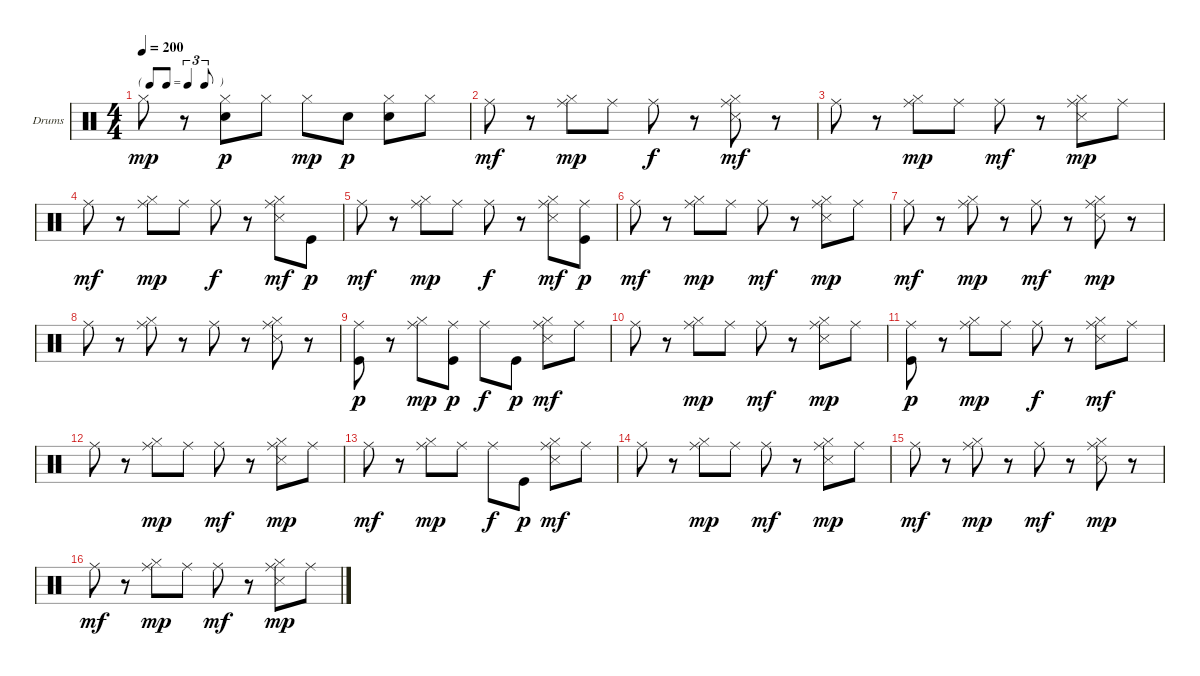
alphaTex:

\bracketExtendMode groupsimilarinstruments
\firstSystemTrackNameOrientation horizontal
\otherSystemsTrackNameOrientation horizontal
\track ("Drumkit" "Drums") {instrument percussion}
\staff {score}
\articulation defaults
\ts (4 4)
\tf triplet8th
\tempo 200
\clef neutral
\ks c "Hi-Hat (closed)".8{dy mp}
r.8 ("Snare (hit) 2" "Hi-Hat (closed)").8{dy p} "Hi-Hat (closed)".8 "Hi-Hat (closed)".8{dy mp} "Snare (hit) 2".8{dy p} ("Snare (hit) 2" "Hi-Hat (closed)").8 "Hi-Hat (closed)".8 |
"Ride (middle)".8{dy mf} r.8 ("Hi-Hat (closed)" "Ride (middle)").8{dy mp} "Ride (middle)".8 "Ride (middle)".8{dy f} r.8 ("Hi-Hat (closed)" "Snare (side stick) 3" "Ride (middle)").8{dy mf} r.8 |
"Ride (middle)".8 r.8 ("Hi-Hat (closed)" "Ride (middle)").8{dy mp} "Ride (middle)".8 "Ride (middle)".8{dy mf} r.8 ("Hi-Hat (closed)" "Snare (side stick) 3" "Ride (middle)").8{dy mp} "Ride (middle)".8 |
"Ride (middle)".8{dy mf} r.8 ("Hi-Hat (closed)" "Ride (middle)").8{dy mp} "Ride (middle)".8 "Ride (middle)".8{dy f} r.8 ("Hi-Hat (closed)" "Snare (side stick) 3" "Ride (middle)").8{dy mf} "Kick (hit)".8{dy p} |
"Ride (middle)".8{dy mf} r.8 ("Hi-Hat (closed)" "Ride (middle)").8{dy mp} "Ride (middle)".8 "Ride (middle)".8{dy f} r.8 ("Hi-Hat (closed)" "Snare (side stick) 3" "Ride (middle)").8{dy mf} ("Kick (hit)" "Ride (middle)").8{dy p} |
"Ride (middle)".8{dy mf} r.8 ("Hi-Hat (closed)" "Ride (middle)").8{dy mp} "Ride (middle)".8 "Ride (middle)".8{dy mf} r.8 ("Hi-Hat (closed)" "Snare (side stick) 3" "Ride (middle)").8{dy mp} "Ride (middle)".8 |
"Ride (middle)".8{dy mf} r.8 ("Hi-Hat (closed)" "Ride (middle)").8{dy mp} r.8 "Ride (middle)".8{dy mf} r.8 ("Hi-Hat (closed)" "Snare (side stick) 3" "Ride (middle)").8{dy mp} r.8 |
"Ride (middle)".8 r.8 ("Hi-Hat (closed)" "Ride (middle)").8 r.8 "Ride (middle)".8 r.8 ("Hi-Hat (closed)" "Snare (side stick) 3" "Ride (middle)").8 r.8 |
("Kick (hit)" "Ride (middle)").8{dy p} r.8 ("Hi-Hat (closed)" "Ride (middle)").8{dy mp} ("Kick (hit)" "Ride (middle)").8{dy p} "Ride (middle)".8{dy f} "Kick (hit)".8{dy p} ("Hi-Hat (closed)" "Snare (side stick) 3" "Ride (middle)").8{dy mf} "Ride (middle)".8 |
"Ride (middle)".8 r.8 ("Hi-Hat (closed)" "Ride (middle)").8{dy mp} "Ride (middle)".8 "Ride (middle)".8{dy mf} r.8 ("Hi-Hat (closed)" "Snare (side stick) 3" "Ride (middle)").8{dy mp} "Ride (middle)".8 |
("Kick (hit)" "Ride (middle)").8{dy p} r.8 ("Hi-Hat (closed)" "Ride (middle)").8{dy mp} "Ride (middle)".8 "Ride (middle)".8{dy f} r.8 ("Hi-Hat (closed)" "Snare (side stick) 3" "Ride (middle)").8{dy mf} "Ride (middle)".8 |
"Ride (middle)".8 r.8 ("Hi-Hat (closed)" "Ride (middle)").8{dy mp} "Ride (middle)".8 "Ride (middle)".8{dy mf} r.8 ("Hi-Hat (closed)" "Snare (side stick) 3" "Ride (middle)").8{dy mp} "Ride (middle)".8 |
"Ride (middle)".8{dy mf} r.8 ("Hi-Hat (closed)" "Ride (middle)").8{dy mp} "Ride (middle)".8 "Ride (middle)".8{dy f} "Kick (hit)".8{dy p} ("Hi-Hat (closed)" "Snare (side stick) 3" "Ride (middle)").8{dy mf} "Ride (middle)".8 |
"Ride (middle)".8 r.8 ("Hi-Hat (closed)" "Ride (middle)").8{dy mp} "Ride (middle)".8 "Ride (middle)".8{dy mf} r.8 ("Hi-Hat (closed)" "Snare (side stick) 3" "Ride (middle)").8{dy mp} "Ride (middle)".8 |
"Ride (middle)".8{dy mf} r.8 ("Hi-Hat (closed)" "Ride (middle)").8{dy mp} r.8 "Ride (middle)".8{dy mf} r.8 ("Hi-Hat (closed)" "Snare (side stick) 3" "Ride (middle)").8{dy mp} r.8 |
"Ride (middle)".8{dy mf} r.8 ("Hi-Hat (closed)" "Ride (middle)").8{dy mp} "Ride (middle)".8 "Ride (middle)".8{dy mf} r.8 ("Hi-Hat (closed)" "Snare (side stick) 3" "Ride (middle)").8{dy mp} "Ride (middle)".8
